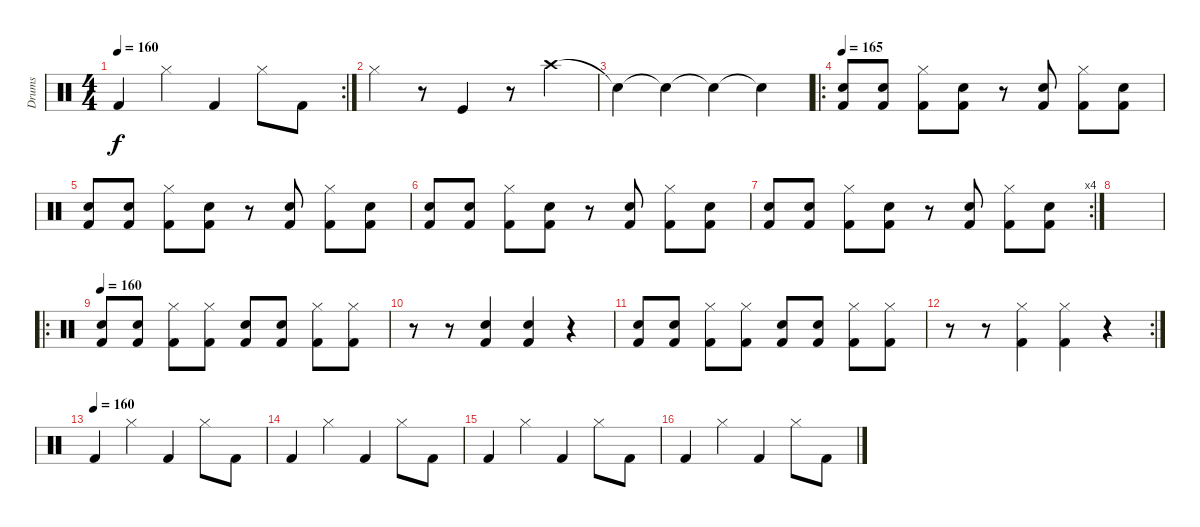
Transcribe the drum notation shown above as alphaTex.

\track ("Drums" "Drums") {instrument percussion}
\staff {score}
\articulation defaults
\rc 2
\ts (4 4)
\tempo 160
\clef neutral
\ks c "Kick (hit) 2".4{dy f} "Hi-Hat (closed)".4 "Kick (hit) 2".4 "Hi-Hat (closed)".8 "Kick (hit) 2".8
|
"Hi-Hat (closed)".4 r.8 "Kick (hit)".4 r.8 "Crash high (hit)".4 |
"Snare (hit)"{t}.4 "Snare (hit)"{t}.4 "Snare (hit)"{t}.4 "Snare (hit)"{t}.4 |
\ro
\tempo 165
("Kick (hit) 2" "Snare (hit) 2").8 ("Kick (hit) 2" "Snare (hit) 2").8 ("Kick (hit) 2" "Hi-Hat (closed)").8 ("Kick (hit) 2" "Snare (hit) 2").8 r.8 ("Kick (hit) 2" "Snare (hit) 2").8 ("Kick (hit) 2" "Hi-Hat (closed)").8 ("Kick (hit) 2" "Snare (hit) 2").8 |
("Kick (hit) 2" "Snare (hit) 2").8 ("Kick (hit) 2" "Snare (hit) 2").8 ("Kick (hit) 2" "Hi-Hat (closed)").8 ("Kick (hit) 2" "Snare (hit) 2").8 r.8 ("Kick (hit) 2" "Snare (hit) 2").8 ("Kick (hit) 2" "Hi-Hat (closed)").8 ("Kick (hit) 2" "Snare (hit) 2").8 |
("Kick (hit) 2" "Snare (hit) 2").8 ("Kick (hit) 2" "Snare (hit) 2").8 ("Kick (hit) 2" "Hi-Hat (closed)").8 ("Kick (hit) 2" "Snare (hit) 2").8 r.8 ("Kick (hit) 2" "Snare (hit) 2").8 ("Kick (hit) 2" "Hi-Hat (closed)").8 ("Kick (hit) 2" "Snare (hit) 2").8 |
\rc 4
("Kick (hit) 2" "Snare (hit) 2").8 ("Kick (hit) 2" "Snare (hit) 2").8 ("Kick (hit) 2" "Hi-Hat (closed)").8 ("Kick (hit) 2" "Snare (hit) 2").8 r.8 ("Kick (hit) 2" "Snare (hit) 2").8 ("Kick (hit) 2" "Hi-Hat (closed)").8 ("Kick (hit) 2" "Snare (hit) 2").8 |
|
\ro
\tempo 160
("Kick (hit) 2" "Snare (hit) 2").8 ("Kick (hit) 2" "Snare (hit) 2").8 ("Kick (hit) 2" "Hi-Hat (closed)").8 ("Kick (hit) 2" "Hi-Hat (closed)").8 ("Kick (hit) 2" "Snare (hit) 2").8 ("Kick (hit) 2" "Snare (hit) 2").8 ("Kick (hit) 2" "Hi-Hat (closed)").8 ("Kick (hit) 2" "Hi-Hat (closed)").8 |
r.8 r.8 ("Kick (hit) 2" "Snare (hit) 2").4 ("Kick (hit) 2" "Snare (hit) 2").4 r.4 |
("Kick (hit) 2" "Snare (hit) 2").8 ("Kick (hit) 2" "Snare (hit) 2").8 ("Kick (hit) 2" "Hi-Hat (closed)").8 ("Kick (hit) 2" "Hi-Hat (closed)").8 ("Kick (hit) 2" "Snare (hit) 2").8 ("Kick (hit) 2" "Snare (hit) 2").8 ("Kick (hit) 2" "Hi-Hat (closed)").8 ("Kick (hit) 2" "Hi-Hat (closed)").8 |
\rc 2
r.8 r.8 ("Kick (hit) 2" "Hi-Hat (closed)").4 ("Kick (hit) 2" "Hi-Hat (closed)").4 r.4 |
\tempo (160)
"Kick (hit) 2".4 "Hi-Hat (closed)".4 "Kick (hit) 2".4 "Hi-Hat (closed)".8 "Kick (hit) 2".8 |
"Kick (hit) 2".4 "Hi-Hat (closed)".4 "Kick (hit) 2".4 "Hi-Hat (closed)".8 "Kick (hit) 2".8 |
"Kick (hit) 2".4 "Hi-Hat (closed)".4 "Kick (hit) 2".4 "Hi-Hat (closed)".8 "Kick (hit) 2".8 |
"Kick (hit) 2".4 "Hi-Hat (closed)".4 "Kick (hit) 2".4 "Hi-Hat (closed)".8 "Kick (hit) 2".8
